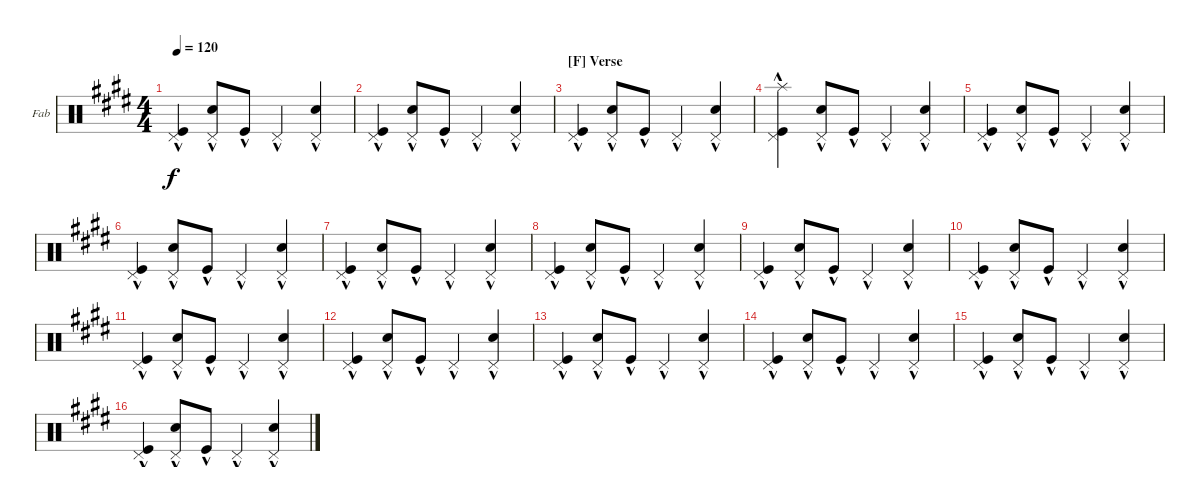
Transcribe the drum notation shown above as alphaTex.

\bracketExtendMode groupsimilarinstruments
\firstSystemTrackNameOrientation horizontal
\otherSystemsTrackNameOrientation horizontal
\track ("Drums" "Fab") {instrument percussion}
\staff {score}
\articulation defaults
\ts (4 4)
\tempo 120
\clef neutral
\scale
0.543246
\ks e
("Pedal Hi-Hat (hit)"{hac} "Kick (hit)"{hac}).4{dy f} ("Snare (hit) 2" "Pedal Hi-Hat (hit)"{hac}).8 "Kick (hit)"{hac}.8 "Pedal Hi-Hat (hit)"{hac}.4 ("Snare (hit) 2" "Pedal Hi-Hat (hit)"{hac}).4 |
\scale
0.456678 ("Pedal Hi-Hat (hit)"{hac} "Kick (hit)"{hac}).4 ("Snare (hit) 2" "Pedal Hi-Hat (hit)"{hac}).8 "Kick (hit)"{hac}.8 "Pedal Hi-Hat (hit)"{hac}.4 ("Snare (hit) 2" "Pedal Hi-Hat (hit)"{hac}).4 |
\section ("F" "Verse")
\scale
0.544629 ("Pedal Hi-Hat (hit)"{hac} "Kick (hit)"{hac}).4 ("Snare (hit) 2" "Pedal Hi-Hat (hit)"{hac}).8 "Kick (hit)"{hac}.8 "Pedal Hi-Hat (hit)"{hac}.4 ("Snare (hit) 2" "Pedal Hi-Hat (hit)"{hac}).4 |
\scale
0.455298 ("Pedal Hi-Hat (hit)"{hac} "Kick (hit)"{hac} "Splash (hit)").4 ("Snare (hit) 2" "Pedal Hi-Hat (hit)"{hac}).8 "Kick (hit)"{hac}.8 "Pedal Hi-Hat (hit)"{hac}.4 ("Snare (hit) 2" "Pedal Hi-Hat (hit)"{hac}).4 |
\scale
0.544629 ("Pedal Hi-Hat (hit)"{hac} "Kick (hit)"{hac}).4 ("Snare (hit) 2" "Pedal Hi-Hat (hit)"{hac}).8 "Kick (hit)"{hac}.8 "Pedal Hi-Hat (hit)"{hac}.4 ("Snare (hit) 2" "Pedal Hi-Hat (hit)"{hac}).4 |
\scale
0.455298 ("Pedal Hi-Hat (hit)"{hac} "Kick (hit)"{hac}).4 ("Snare (hit) 2" "Pedal Hi-Hat (hit)"{hac}).8 "Kick (hit)"{hac}.8 "Pedal Hi-Hat (hit)"{hac}.4 ("Snare (hit) 2" "Pedal Hi-Hat (hit)"{hac}).4 |
\scale
0.546011 ("Pedal Hi-Hat (hit)"{hac} "Kick (hit)"{hac}).4 ("Snare (hit) 2" "Pedal Hi-Hat (hit)"{hac}).8 "Kick (hit)"{hac}.8 "Pedal Hi-Hat (hit)"{hac}.4 ("Snare (hit) 2" "Pedal Hi-Hat (hit)"{hac}).4 |
\scale
0.453918 ("Pedal Hi-Hat (hit)"{hac} "Kick (hit)"{hac}).4 ("Snare (hit) 2" "Pedal Hi-Hat (hit)"{hac}).8 "Kick (hit)"{hac}.8 "Pedal Hi-Hat (hit)"{hac}.4 ("Snare (hit) 2" "Pedal Hi-Hat (hit)"{hac}).4 |
\scale
0.546011 ("Pedal Hi-Hat (hit)"{hac} "Kick (hit)"{hac}).4 ("Snare (hit) 2" "Pedal Hi-Hat (hit)"{hac}).8 "Kick (hit)"{hac}.8 "Pedal Hi-Hat (hit)"{hac}.4 ("Snare (hit) 2" "Pedal Hi-Hat (hit)"{hac}).4 |
\scale
0.453918 ("Pedal Hi-Hat (hit)"{hac} "Kick (hit)"{hac}).4 ("Snare (hit) 2" "Pedal Hi-Hat (hit)"{hac}).8 "Kick (hit)"{hac}.8 "Pedal Hi-Hat (hit)"{hac}.4 ("Snare (hit) 2" "Pedal Hi-Hat (hit)"{hac}).4 |
\scale
0.544629 ("Pedal Hi-Hat (hit)"{hac} "Kick (hit)"{hac}).4 ("Snare (hit) 2" "Pedal Hi-Hat (hit)"{hac}).8 "Kick (hit)"{hac}.8 "Pedal Hi-Hat (hit)"{hac}.4 ("Snare (hit) 2" "Pedal Hi-Hat (hit)"{hac}).4 |
\scale
0.455298 ("Pedal Hi-Hat (hit)"{hac} "Kick (hit)"{hac}).4 ("Snare (hit) 2" "Pedal Hi-Hat (hit)"{hac}).8 "Kick (hit)"{hac}.8 "Pedal Hi-Hat (hit)"{hac}.4 ("Snare (hit) 2" "Pedal Hi-Hat (hit)"{hac}).4 |
\scale
0.546011 ("Pedal Hi-Hat (hit)"{hac} "Kick (hit)"{hac}).4 ("Snare (hit) 2" "Pedal Hi-Hat (hit)"{hac}).8 "Kick (hit)"{hac}.8 "Pedal Hi-Hat (hit)"{hac}.4 ("Snare (hit) 2" "Pedal Hi-Hat (hit)"{hac}).4 |
\scale
0.453918 ("Pedal Hi-Hat (hit)"{hac} "Kick (hit)"{hac}).4 ("Snare (hit) 2" "Pedal Hi-Hat (hit)"{hac}).8 "Kick (hit)"{hac}.8 "Pedal Hi-Hat (hit)"{hac}.4 ("Snare (hit) 2" "Pedal Hi-Hat (hit)"{hac}).4 |
\scale
0.547393 ("Pedal Hi-Hat (hit)"{hac} "Kick (hit)"{hac}).4 ("Snare (hit) 2" "Pedal Hi-Hat (hit)"{hac}).8 "Kick (hit)"{hac}.8 "Pedal Hi-Hat (hit)"{hac}.4 ("Snare (hit) 2" "Pedal Hi-Hat (hit)"{hac}).4 |
\scale
0.452539 ("Pedal Hi-Hat (hit)"{hac} "Kick (hit)"{hac}).4 ("Snare (hit) 2" "Pedal Hi-Hat (hit)"{hac}).8 "Kick (hit)"{hac}.8 "Pedal Hi-Hat (hit)"{hac}.4 ("Snare (hit) 2" "Pedal Hi-Hat (hit)"{hac}).4
